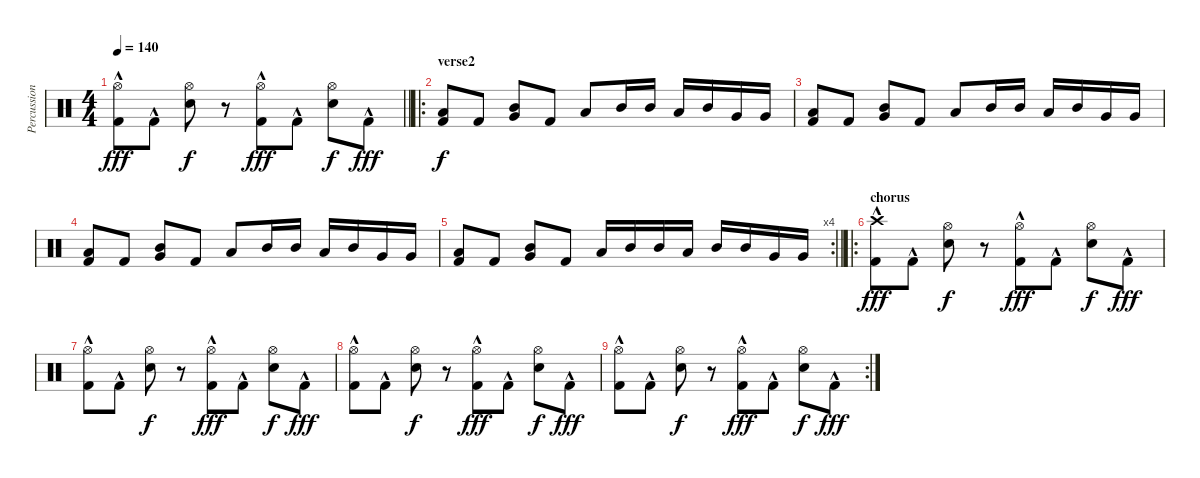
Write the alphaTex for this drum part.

\track ("Percussion" "Percussion") {instrument percussion}
\staff {score}
\articulation defaults
\ts (4 4)
\tempo 140
\clef neutral
\barLineRight lightlight
\ks c
("Hi-Hat (open)" "Kick (hit) 2"{hac}).8{dy fff} "Kick (hit) 2"{hac}.8 ("Hi-Hat (open)" "Electric Snare (hit)").8{dy f} r.8 ("Hi-Hat (open)" "Kick (hit) 2"{hac}).8{dy fff} "Kick (hit) 2"{hac}.8 ("Hi-Hat (open)" "Electric Snare (hit)").8{dy f} "Kick (hit) 2"{hac}.8{dy fff} |
\ro
\section ("" "verse2")
("Low Tom (hit)" "Kick (hit) 2").8{dy f} "Kick (hit) 2".8 ("Very Low Tom (hit)" "Mid Tom (hit)").8 "Kick (hit) 2".8 "Low Floor Tom (hit)".8 "Mid Tom (hit)".16 "Mid Tom (hit)".16 "Low Tom (hit)".16 "Mid Tom (hit)".16 "Very Low Tom (hit)".16 "Very Low Tom (hit)".16 |
("Low Tom (hit)" "Kick (hit) 2").8 "Kick (hit) 2".8 ("Very Low Tom (hit)" "Mid Tom (hit)").8 "Kick (hit) 2".8 "Low Floor Tom (hit)".8 "Mid Tom (hit)".16 "Mid Tom (hit)".16 "Low Tom (hit)".16 "Mid Tom (hit)".16 "Very Low Tom (hit)".16 "Very Low Tom (hit)".16 |
("Low Tom (hit)" "Kick (hit) 2").8 "Kick (hit) 2".8 ("Very Low Tom (hit)" "Mid Tom (hit)").8 "Kick (hit) 2".8 "Low Floor Tom (hit)".8 "Mid Tom (hit)".16 "Mid Tom (hit)".16 "Low Tom (hit)".16 "Mid Tom (hit)".16 "Very Low Tom (hit)".16 "Very Low Tom (hit)".16 |
\rc 4
\barLineRight lightlight
("Low Tom (hit)" "Kick (hit) 2").8 "Kick (hit) 2".8 ("Very Low Tom (hit)" "Mid Tom (hit)").8 "Kick (hit) 2".8 "Low Floor Tom (hit)".16 "Mid Tom (hit)".16 "Mid Tom (hit)".16 "Low Tom (hit)".16 "Mid Tom (hit)".16 "Mid Tom (hit)".16 "Very Low Tom (hit)".16 "Very Low Tom (hit)".16 |
\ro
\section ("" "chorus")
("Crash high (hit)" "Kick (hit) 2"{hac}).8{dy fff} "Kick (hit) 2"{hac}.8 ("Hi-Hat (open)" "Electric Snare (hit)").8{dy f} r.8 ("Hi-Hat (open)" "Kick (hit) 2"{hac}).8{dy fff} "Kick (hit) 2"{hac}.8 ("Hi-Hat (open)" "Electric Snare (hit)").8{dy f} "Kick (hit) 2"{hac}.8{dy fff} |
("Hi-Hat (open)" "Kick (hit) 2"{hac}).8 "Kick (hit) 2"{hac}.8 ("Hi-Hat (open)" "Electric Snare (hit)").8{dy f} r.8 ("Hi-Hat (open)" "Kick (hit) 2"{hac}).8{dy fff} "Kick (hit) 2"{hac}.8 ("Hi-Hat (open)" "Electric Snare (hit)").8{dy f} "Kick (hit) 2"{hac}.8{dy fff} |
("Hi-Hat (open)" "Kick (hit) 2"{hac}).8 "Kick (hit) 2"{hac}.8 ("Hi-Hat (open)" "Electric Snare (hit)").8{dy f} r.8 ("Hi-Hat (open)" "Kick (hit) 2"{hac}).8{dy fff} "Kick (hit) 2"{hac}.8 ("Hi-Hat (open)" "Electric Snare (hit)").8{dy f} "Kick (hit) 2"{hac}.8{dy fff} |
\rc 2
("Hi-Hat (open)" "Kick (hit) 2"{hac}).8 "Kick (hit) 2"{hac}.8 ("Hi-Hat (open)" "Electric Snare (hit)").8{dy f} r.8 ("Hi-Hat (open)" "Kick (hit) 2"{hac}).8{dy fff} "Kick (hit) 2"{hac}.8 ("Hi-Hat (open)" "Electric Snare (hit)").8{dy f} "Kick (hit) 2"{hac}.8{dy fff}
